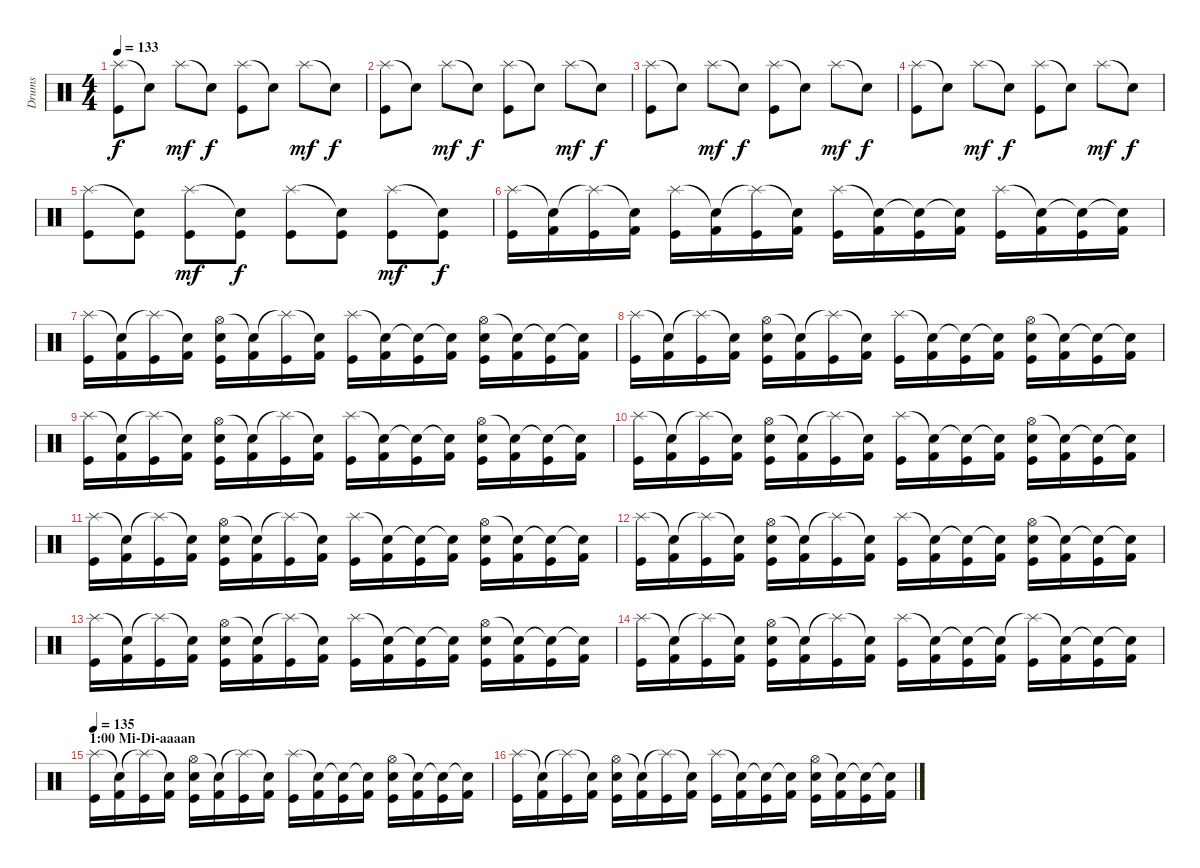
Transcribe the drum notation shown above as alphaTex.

\track ("Drums" "Drums") {instrument percussion}
\staff {score}
\articulation defaults
\ts (4 4)
\tempo 133
\clef neutral
\ks c
("Splash (hit)" "Kick (hit)").8{dy f} "Snare (hit)"{t}.8 "Splash (hit)".8{dy mf} "Snare (hit)"{t}.8{dy f} ("Splash (hit)" "Kick (hit)").8 "Snare (hit)"{t}.8 "Splash (hit)".8{dy mf} "Snare (hit)"{t}.8{dy f} |
("Splash (hit)" "Kick (hit)").8 "Snare (hit)"{t}.8 "Splash (hit)".8{dy mf} "Snare (hit)"{t}.8{dy f} ("Splash (hit)" "Kick (hit)").8 "Snare (hit)"{t}.8 "Splash (hit)".8{dy mf} "Snare (hit)"{t}.8{dy f} |
("Splash (hit)" "Kick (hit)").8 "Snare (hit)"{t}.8 "Splash (hit)".8{dy mf} "Snare (hit)"{t}.8{dy f} ("Splash (hit)" "Kick (hit)").8 "Snare (hit)"{t}.8 "Splash (hit)".8{dy mf} "Snare (hit)"{t}.8{dy f} |
("Splash (hit)" "Kick (hit)").8 "Snare (hit)"{t}.8 "Splash (hit)".8{dy mf} "Snare (hit)"{t}.8{dy f} ("Splash (hit)" "Kick (hit)").8 "Snare (hit)"{t}.8 "Splash (hit)".8{dy mf} "Snare (hit)"{t}.8{dy f} |
("Splash (hit)" "Kick (hit)").8 ("Snare (hit)"{t} "Kick (hit)").8 ("Splash (hit)" "Kick (hit)").8{dy mf} ("Snare (hit)"{t} "Kick (hit)").8{dy f} ("Splash (hit)" "Kick (hit)").8 ("Snare (hit)"{t} "Kick (hit)").8 ("Splash (hit)" "Kick (hit)").8{dy mf} ("Snare (hit)"{t} "Kick (hit)").8{dy f} |
("Splash (hit)" "Kick (hit)").16 ("Snare (hit)"{t} "Kick (hit) 2").16 ("Splash (hit)"{t} "Kick (hit)").16 ("Snare (hit)"{t} "Kick (hit) 2").16 ("Splash (hit)" "Kick (hit)").16 ("Snare (hit)"{t} "Kick (hit) 2").16 ("Splash (hit)"{t} "Kick (hit)").16 ("Snare (hit)"{t} "Kick (hit) 2").16 ("Splash (hit)" "Kick (hit)").16 ("Snare (hit)"{t} "Kick (hit) 2").16 ("Snare (hit)"{t} "Kick (hit)").16 ("Snare (hit)"{t} "Kick (hit) 2").16 ("Splash (hit)" "Kick (hit)").16 ("Snare (hit)"{t} "Kick (hit) 2").16 ("Snare (hit)"{t} "Kick (hit)").16 ("Snare (hit)"{t} "Kick (hit) 2").16 |
("Splash (hit)" "Kick (hit)").16 ("Snare (hit)"{t} "Kick (hit) 2").16 ("Splash (hit)"{t} "Kick (hit)").16 ("Snare (hit)"{t} "Kick (hit) 2").16 ("Hi-Hat (open)" "Snare (hit) 2" "Kick (hit)").16 ("Snare (hit)"{t} "Kick (hit) 2").16 ("Splash (hit)"{t} "Kick (hit)").16 ("Snare (hit)"{t} "Kick (hit) 2").16 ("Splash (hit)" "Kick (hit)").16 ("Snare (hit)"{t} "Kick (hit) 2").16 ("Snare (hit)"{t} "Kick (hit)").16 ("Snare (hit)"{t} "Kick (hit) 2").16 ("Hi-Hat (open)" "Snare (hit) 2" "Kick (hit)").16 ("Snare (hit)"{t} "Kick (hit) 2").16 ("Snare (hit)"{t} "Kick (hit)").16 ("Snare (hit)"{t} "Kick (hit) 2").16 |
("Splash (hit)" "Kick (hit)").16 ("Snare (hit)"{t} "Kick (hit) 2").16 ("Splash (hit)"{t} "Kick (hit)").16 ("Snare (hit)"{t} "Kick (hit) 2").16 ("Hi-Hat (open)" "Snare (hit) 2" "Kick (hit)").16 ("Snare (hit)"{t} "Kick (hit) 2").16 ("Splash (hit)"{t} "Kick (hit)").16 ("Snare (hit)"{t} "Kick (hit) 2").16 ("Splash (hit)" "Kick (hit)").16 ("Snare (hit)"{t} "Kick (hit) 2").16 ("Snare (hit)"{t} "Kick (hit)").16 ("Snare (hit)"{t} "Kick (hit) 2").16 ("Hi-Hat (open)" "Snare (hit) 2" "Kick (hit)").16 ("Snare (hit)"{t} "Kick (hit) 2").16 ("Snare (hit)"{t} "Kick (hit)").16 ("Snare (hit)"{t} "Kick (hit) 2").16 |
("Splash (hit)" "Kick (hit)").16 ("Snare (hit)"{t} "Kick (hit) 2").16 ("Splash (hit)"{t} "Kick (hit)").16 ("Snare (hit)"{t} "Kick (hit) 2").16 ("Hi-Hat (open)" "Snare (hit) 2" "Kick (hit)").16 ("Snare (hit)"{t} "Kick (hit) 2").16 ("Splash (hit)"{t} "Kick (hit)").16 ("Snare (hit)"{t} "Kick (hit) 2").16 ("Splash (hit)" "Kick (hit)").16 ("Snare (hit)"{t} "Kick (hit) 2").16 ("Snare (hit)"{t} "Kick (hit)").16 ("Snare (hit)"{t} "Kick (hit) 2").16 ("Hi-Hat (open)" "Snare (hit) 2" "Kick (hit)").16 ("Snare (hit)"{t} "Kick (hit) 2").16 ("Snare (hit)"{t} "Kick (hit)").16 ("Snare (hit)"{t} "Kick (hit) 2").16 |
("Splash (hit)" "Kick (hit)").16 ("Snare (hit)"{t} "Kick (hit) 2").16 ("Splash (hit)"{t} "Kick (hit)").16 ("Snare (hit)"{t} "Kick (hit) 2").16 ("Hi-Hat (open)" "Snare (hit) 2" "Kick (hit)").16 ("Snare (hit)"{t} "Kick (hit) 2").16 ("Splash (hit)"{t} "Kick (hit)").16 ("Snare (hit)"{t} "Kick (hit) 2").16 ("Splash (hit)" "Kick (hit)").16 ("Snare (hit)"{t} "Kick (hit) 2").16 ("Snare (hit)"{t} "Kick (hit)").16 ("Snare (hit)"{t} "Kick (hit) 2").16 ("Hi-Hat (open)" "Snare (hit) 2" "Kick (hit)").16 ("Snare (hit)"{t} "Kick (hit) 2").16 ("Snare (hit)"{t} "Kick (hit)").16 ("Snare (hit)"{t} "Kick (hit) 2").16 |
("Splash (hit)" "Kick (hit)").16 ("Snare (hit)"{t} "Kick (hit) 2").16 ("Splash (hit)"{t} "Kick (hit)").16 ("Snare (hit)"{t} "Kick (hit) 2").16 ("Hi-Hat (open)" "Snare (hit) 2" "Kick (hit)").16 ("Snare (hit)"{t} "Kick (hit) 2").16 ("Splash (hit)"{t} "Kick (hit)").16 ("Snare (hit)"{t} "Kick (hit) 2").16 ("Splash (hit)" "Kick (hit)").16 ("Snare (hit)"{t} "Kick (hit) 2").16 ("Snare (hit)"{t} "Kick (hit)").16 ("Snare (hit)"{t} "Kick (hit) 2").16 ("Hi-Hat (open)" "Snare (hit) 2" "Kick (hit)").16 ("Snare (hit)"{t} "Kick (hit) 2").16 ("Snare (hit)"{t} "Kick (hit)").16 ("Snare (hit)"{t} "Kick (hit) 2").16 |
("Splash (hit)" "Kick (hit)").16 ("Snare (hit)"{t} "Kick (hit) 2").16 ("Splash (hit)"{t} "Kick (hit)").16 ("Snare (hit)"{t} "Kick (hit) 2").16 ("Hi-Hat (open)" "Snare (hit) 2" "Kick (hit)").16 ("Snare (hit)"{t} "Kick (hit) 2").16 ("Splash (hit)"{t} "Kick (hit)").16 ("Snare (hit)"{t} "Kick (hit) 2").16 ("Splash (hit)" "Kick (hit)").16 ("Snare (hit)"{t} "Kick (hit) 2").16 ("Snare (hit)"{t} "Kick (hit)").16 ("Snare (hit)"{t} "Kick (hit) 2").16 ("Hi-Hat (open)" "Snare (hit) 2" "Kick (hit)").16 ("Snare (hit)"{t} "Kick (hit) 2").16 ("Snare (hit)"{t} "Kick (hit)").16 ("Snare (hit)"{t} "Kick (hit) 2").16 |
("Splash (hit)" "Kick (hit)").16 ("Snare (hit)"{t} "Kick (hit) 2").16 ("Splash (hit)"{t} "Kick (hit)").16 ("Snare (hit)"{t} "Kick (hit) 2").16 ("Hi-Hat (open)" "Snare (hit) 2" "Kick (hit)").16 ("Snare (hit)"{t} "Kick (hit) 2").16 ("Splash (hit)"{t} "Kick (hit)").16 ("Snare (hit)"{t} "Kick (hit) 2").16 ("Splash (hit)" "Kick (hit)").16 ("Snare (hit)"{t} "Kick (hit) 2").16 ("Snare (hit)"{t} "Kick (hit)").16 ("Snare (hit)"{t} "Kick (hit) 2").16 ("Hi-Hat (open)" "Snare (hit) 2" "Kick (hit)").16 ("Snare (hit)"{t} "Kick (hit) 2").16 ("Snare (hit)"{t} "Kick (hit)").16 ("Snare (hit)"{t} "Kick (hit) 2").16 |
("Splash (hit)" "Kick (hit)").16 ("Snare (hit)"{t} "Kick (hit) 2").16 ("Splash (hit)"{t} "Kick (hit)").16 ("Snare (hit)"{t} "Kick (hit) 2").16 ("Hi-Hat (open)" "Snare (hit) 2" "Kick (hit)").16 ("Snare (hit)"{t} "Kick (hit) 2").16 ("Splash (hit)"{t} "Kick (hit)").16 ("Snare (hit)"{t} "Kick (hit) 2").16 ("Splash (hit)" "Kick (hit)").16 ("Snare (hit)"{t} "Kick (hit) 2").16 ("Snare (hit)"{t} "Kick (hit)").16 ("Snare (hit)"{t} "Kick (hit) 2").16 ("Splash (hit)"{t} "Kick (hit)").16 ("Snare (hit)"{t} "Kick (hit) 2").16 ("Snare (hit)"{t} "Kick (hit)").16 ("Snare (hit)"{t} "Kick (hit) 2").16 |
\section ("" "1:00 Mi-Di-aaaan")
\tempo 135
("Splash (hit)" "Kick (hit)").16 ("Snare (hit)"{t} "Kick (hit) 2").16 ("Splash (hit)"{t} "Kick (hit)").16 ("Snare (hit)"{t} "Kick (hit) 2").16 ("Hi-Hat (open)" "Snare (hit) 2" "Kick (hit)").16 ("Snare (hit)"{t} "Kick (hit) 2").16 ("Splash (hit)"{t} "Kick (hit)").16 ("Snare (hit)"{t} "Kick (hit) 2").16 ("Splash (hit)" "Kick (hit)").16 ("Snare (hit)"{t} "Kick (hit) 2").16 ("Snare (hit)"{t} "Kick (hit)").16 ("Snare (hit)"{t} "Kick (hit) 2").16 ("Hi-Hat (open)" "Snare (hit) 2" "Kick (hit)").16 ("Snare (hit)"{t} "Kick (hit) 2").16 ("Snare (hit)"{t} "Kick (hit)").16 ("Snare (hit)"{t} "Kick (hit) 2").16 |
("Splash (hit)" "Kick (hit)").16 ("Snare (hit)"{t} "Kick (hit) 2").16 ("Splash (hit)"{t} "Kick (hit)").16 ("Snare (hit)"{t} "Kick (hit) 2").16 ("Hi-Hat (open)" "Snare (hit) 2" "Kick (hit)").16 ("Snare (hit)"{t} "Kick (hit) 2").16 ("Splash (hit)"{t} "Kick (hit)").16 ("Snare (hit)"{t} "Kick (hit) 2").16 ("Splash (hit)" "Kick (hit)").16 ("Snare (hit)"{t} "Kick (hit) 2").16 ("Snare (hit)"{t} "Kick (hit)").16 ("Snare (hit)"{t} "Kick (hit) 2").16 ("Hi-Hat (open)" "Snare (hit) 2" "Kick (hit)").16 ("Snare (hit)"{t} "Kick (hit) 2").16 ("Snare (hit)"{t} "Kick (hit)").16 ("Snare (hit)"{t} "Kick (hit) 2").16
